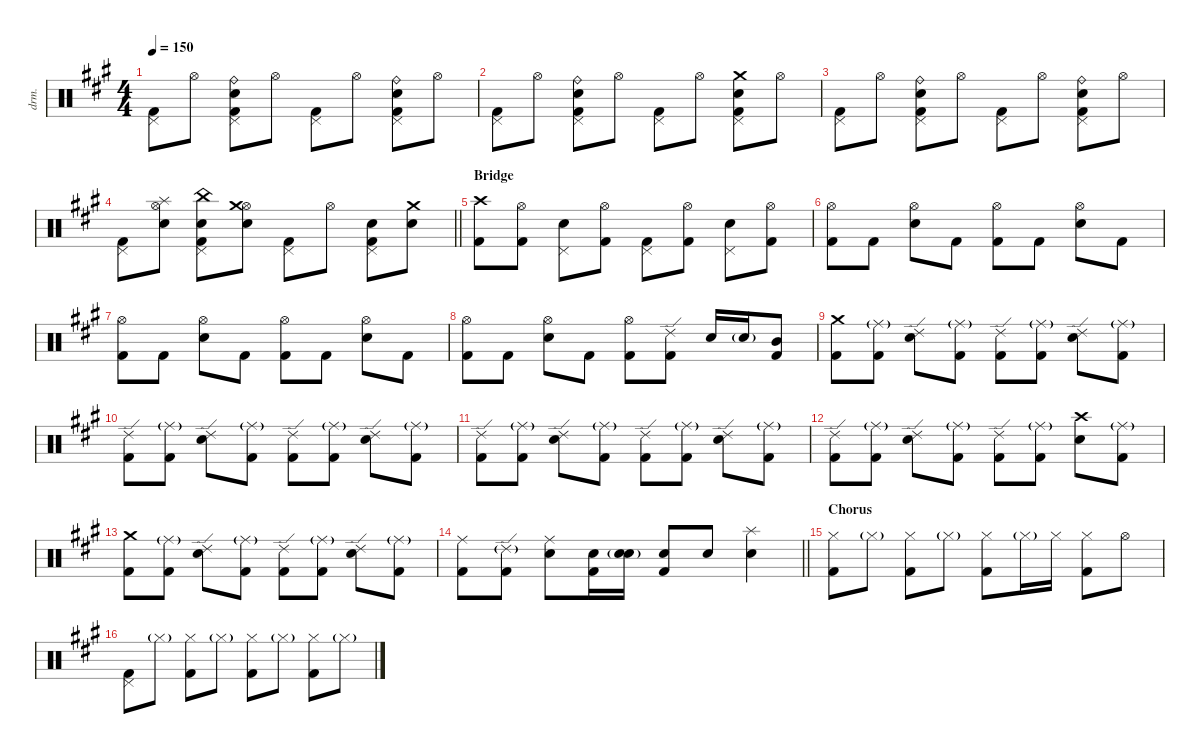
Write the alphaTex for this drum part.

\defaultSystemsLayout 4
\hideDynamics
\bracketExtendMode nobrackets
\otherSystemsTrackNameOrientation horizontal
\track ("Drums" "drm.") {instrument percussion}
\staff {score}
\articulation defaults
\ts (4 4)
\tempo 150
\clef neutral
\ks a
("Kick (hit) 2"{acc forcenatural} "Pedal Hi-Hat (hit)"{acc forcenatural}).8{dy fff} "Hi-Hat (open)"{acc forcenatural}.8{dy mp} ("Kick (hit) 2"{acc forcenatural} "Snare (hit) 2"{acc forcenatural} "Pedal Hi-Hat (hit)"{acc forcenatural} "Ride (bell)"{acc forcenatural}).8{dy fff} "Hi-Hat (open)"{acc forcenatural}.8{dy mp} ("Kick (hit) 2"{acc forcenatural} "Pedal Hi-Hat (hit)"{acc forcenatural}).8{dy fff} "Hi-Hat (open)"{acc forcenatural}.8{dy mp} ("Kick (hit) 2"{acc forcenatural} "Snare (hit) 2"{acc forcenatural} "Pedal Hi-Hat (hit)"{acc forcenatural} "Ride (bell)"{acc forcenatural}).8{dy fff} "Hi-Hat (open)"{acc forcenatural}.8{dy mp} |
("Kick (hit) 2"{acc forcenatural} "Pedal Hi-Hat (hit)"{acc forcenatural}).8{dy fff} "Hi-Hat (open)"{acc forcenatural}.8{dy mp} ("Kick (hit) 2"{acc forcenatural} "Snare (hit) 2"{acc forcenatural} "Pedal Hi-Hat (hit)"{acc forcenatural} "Ride (bell)"{acc forcenatural}).8{dy fff} "Hi-Hat (open)"{acc forcenatural}.8{dy mp} ("Kick (hit) 2"{acc forcenatural} "Pedal Hi-Hat (hit)"{acc forcenatural}).8{dy fff} "Hi-Hat (open)"{acc forcenatural}.8{dy mp} ("Kick (hit) 2"{acc forcenatural} "Snare (hit) 2"{acc forcenatural} "Pedal Hi-Hat (hit)"{acc forcenatural} "Crash medium (hit)"{acc forcenatural}).8{dy fff} "Hi-Hat (open)"{acc forcenatural}.8{dy mp} |
("Kick (hit) 2"{acc forcenatural} "Pedal Hi-Hat (hit)"{acc forcenatural}).8{dy fff} "Hi-Hat (open)"{acc forcenatural}.8{dy mp} ("Kick (hit) 2"{acc forcenatural} "Snare (hit) 2"{acc forcenatural} "Pedal Hi-Hat (hit)"{acc forcenatural} "Ride (bell)"{acc forcenatural}).8{dy fff} "Hi-Hat (open)"{acc forcenatural}.8{dy mp} ("Kick (hit) 2"{acc forcenatural} "Pedal Hi-Hat (hit)"{acc forcenatural}).8{dy fff} "Hi-Hat (open)"{acc forcenatural}.8{dy mp} ("Kick (hit) 2"{acc forcenatural} "Snare (hit) 2"{acc forcenatural} "Pedal Hi-Hat (hit)"{acc forcenatural} "Ride (bell)"{acc forcenatural}).8{dy fff} "Hi-Hat (open)"{acc forcenatural}.8{dy mp} |
\barLineRight lightlight
("Kick (hit) 2"{acc forcenatural} "Pedal Hi-Hat (hit)"{acc forcenatural}).8{dy fff} ("Snare (hit) 2"{acc forcenatural} "Hi-Hat (open)"{acc forcenatural} "Splash (hit)"{acc forcenatural}).8 ("Kick (hit) 2"{acc forcenatural} "Snare (hit) 2"{acc forcenatural} "Pedal Hi-Hat (hit)"{acc forcenatural} "China (hit)"{acc forcenatural}).8 ("Snare (hit) 2"{acc forcenatural} "Hi-Hat (open)"{acc forcenatural} "Crash medium (hit)"{acc forcenatural}).8 ("Kick (hit) 2"{acc forcenatural} "Pedal Hi-Hat (hit)"{acc forcenatural}).8 "Hi-Hat (open)"{acc forcenatural}.8{dy mp} ("Kick (hit) 2"{acc forcenatural} "Snare (hit) 2"{acc forcenatural} "Pedal Hi-Hat (hit)"{acc forcenatural}).8{dy fff} ("Snare (hit) 2"{acc forcenatural} "Crash medium (hit)"{acc forcenatural}).8 |
\section ("" "Bridge")
("Kick (hit) 2"{acc forcenatural} "Crash high (hit)"{acc forcenatural}).8 ("Kick (hit) 2"{acc forcenatural} "Hi-Hat (open)"{acc forcenatural}).8 ("Snare (hit) 2"{acc forcenatural} "Pedal Hi-Hat (hit)"{acc forcenatural}).8{dy ff} ("Kick (hit) 2"{acc forcenatural} "Hi-Hat (open)"{acc forcenatural}).8{dy mp} ("Kick (hit) 2"{acc forcenatural} "Pedal Hi-Hat (hit)"{acc forcenatural}).8{dy fff} ("Kick (hit) 2"{acc forcenatural} "Hi-Hat (open)"{acc forcenatural}).8 ("Snare (hit) 2"{acc forcenatural} "Pedal Hi-Hat (hit)"{acc forcenatural}).8{dy ff} ("Kick (hit) 2"{acc forcenatural} "Hi-Hat (open)"{acc forcenatural}).8{dy mp} |
("Kick (hit) 2"{acc forcenatural} "Hi-Hat (open)"{acc forcenatural}).8{dy fff} "Kick (hit) 2"{acc forcenatural}.8 ("Snare (hit) 2"{acc forcenatural} "Hi-Hat (open)"{acc forcenatural}).8{dy ff} "Kick (hit) 2"{acc forcenatural}.8{dy mp} ("Kick (hit) 2"{acc forcenatural} "Hi-Hat (open)"{acc forcenatural}).8{dy fff} "Kick (hit) 2"{acc forcenatural}.8 ("Snare (hit) 2"{acc forcenatural} "Hi-Hat (open)"{acc forcenatural}).8{dy ff} "Kick (hit) 2"{acc forcenatural}.8{dy mp} |
("Kick (hit) 2"{acc forcenatural} "Hi-Hat (open)"{acc forcenatural}).8{dy fff} "Kick (hit) 2"{acc forcenatural}.8 ("Snare (hit) 2"{acc forcenatural} "Hi-Hat (open)"{acc forcenatural}).8{dy ff} "Kick (hit) 2"{acc forcenatural}.8{dy mp} ("Kick (hit) 2"{acc forcenatural} "Hi-Hat (open)"{acc forcenatural}).8{dy fff} "Kick (hit) 2"{acc forcenatural}.8 ("Snare (hit) 2"{acc forcenatural} "Hi-Hat (open)"{acc forcenatural}).8{dy ff} "Kick (hit) 2"{acc forcenatural}.8{dy mp} |
("Kick (hit) 2"{acc forcenatural} "Hi-Hat (open)"{acc forcenatural}).8{dy fff} "Kick (hit) 2"{acc forcenatural}.8 ("Snare (hit) 2"{acc forcenatural} "Hi-Hat (open)"{acc forcenatural}).8{dy ff} "Kick (hit) 2"{acc forcenatural}.8{dy mp} ("Kick (hit) 2"{acc forcenatural} "Hi-Hat (open)"{acc forcenatural}).8{dy fff} ("Kick (hit) 2"{acc forcenatural} "Ride (edge) 2"{acc forcenatural}).8 "Snare (hit) 2"{acc forcenatural}.16{dy ff} "Snare (hit) 2"{g acc forcenatural}.16{dy f} ("Kick (hit) 2"{acc forcenatural} "Mid Tom (hit)"{acc forcenatural}).8{dy mp} |
("Kick (hit) 2"{acc forcenatural} "Crash medium (hit)"{acc forcenatural}).8{dy fff} ("Kick (hit) 2"{acc forcenatural} "Ride (middle)"{g acc forcenatural}).8 ("Snare (hit) 2"{acc forcenatural} "Ride (edge) 2"{acc forcenatural}).8{dy ff} ("Kick (hit) 2"{acc forcenatural} "Ride (middle)"{g acc forcenatural}).8{dy mp} ("Kick (hit) 2"{acc forcenatural} "Ride (edge) 2"{acc forcenatural}).8{dy fff} ("Kick (hit) 2"{acc forcenatural} "Ride (middle)"{g acc forcenatural}).8 ("Snare (hit) 2"{acc forcenatural} "Ride (edge) 2"{acc forcenatural}).8{dy ff} ("Kick (hit) 2"{acc forcenatural} "Ride (middle)"{g acc forcenatural}).8{dy mp} |
("Kick (hit) 2"{acc forcenatural} "Ride (edge) 2"{acc forcenatural}).8{dy fff} ("Kick (hit) 2"{acc forcenatural} "Ride (middle)"{g acc forcenatural}).8 ("Snare (hit) 2"{acc forcenatural} "Ride (edge) 2"{acc forcenatural}).8{dy ff} ("Kick (hit) 2"{acc forcenatural} "Ride (middle)"{g acc forcenatural}).8{dy mp} ("Kick (hit) 2"{acc forcenatural} "Ride (edge) 2"{acc forcenatural}).8{dy fff} ("Kick (hit) 2"{acc forcenatural} "Ride (middle)"{g acc forcenatural}).8 ("Snare (hit) 2"{acc forcenatural} "Ride (edge) 2"{acc forcenatural}).8{dy ff} ("Kick (hit) 2"{acc forcenatural} "Ride (middle)"{g acc forcenatural}).8{dy mp} |
("Kick (hit) 2"{acc forcenatural} "Ride (edge) 2"{acc forcenatural}).8{dy fff} ("Kick (hit) 2"{acc forcenatural} "Ride (middle)"{g acc forcenatural}).8 ("Snare (hit) 2"{acc forcenatural} "Ride (edge) 2"{acc forcenatural}).8{dy ff} ("Kick (hit) 2"{acc forcenatural} "Ride (middle)"{g acc forcenatural}).8{dy mp} ("Kick (hit) 2"{acc forcenatural} "Ride (edge) 2"{acc forcenatural}).8{dy fff} ("Kick (hit) 2"{acc forcenatural} "Ride (middle)"{g acc forcenatural}).8 ("Snare (hit) 2"{acc forcenatural} "Ride (edge) 2"{acc forcenatural}).8{dy ff} ("Kick (hit) 2"{acc forcenatural} "Ride (middle)"{g acc forcenatural}).8{dy mp} |
("Kick (hit) 2"{acc forcenatural} "Ride (edge) 2"{acc forcenatural}).8{dy fff} ("Kick (hit) 2"{acc forcenatural} "Ride (middle)"{g acc forcenatural}).8 ("Snare (hit) 2"{acc forcenatural} "Ride (edge) 2"{acc forcenatural}).8{dy ff} ("Kick (hit) 2"{acc forcenatural} "Ride (middle)"{g acc forcenatural}).8{dy mp} ("Kick (hit) 2"{acc forcenatural} "Ride (edge) 2"{acc forcenatural}).8{dy fff} ("Kick (hit) 2"{acc forcenatural} "Ride (middle)"{g acc forcenatural}).8 ("Snare (hit) 2"{acc forcenatural} "Crash high (hit)"{acc forcenatural}).8 ("Kick (hit) 2"{acc forcenatural} "Ride (middle)"{g acc forcenatural}).8{dy mp} |
("Kick (hit) 2"{acc forcenatural} "Crash medium (hit)"{acc forcenatural}).8{dy fff} ("Kick (hit) 2"{acc forcenatural} "Ride (middle)"{g acc forcenatural}).8 ("Snare (hit) 2"{acc forcenatural} "Ride (edge) 2"{acc forcenatural}).8{dy ff} ("Kick (hit) 2"{acc forcenatural} "Ride (middle)"{g acc forcenatural}).8{dy mp} ("Kick (hit) 2"{acc forcenatural} "Ride (edge) 2"{acc forcenatural}).8{dy fff} ("Kick (hit) 2"{acc forcenatural} "Ride (middle)"{g acc forcenatural}).8 ("Snare (hit) 2"{acc forcenatural} "Ride (edge) 2"{acc forcenatural}).8{dy ff} ("Kick (hit) 2"{acc forcenatural} "Ride (middle)"{g acc forcenatural}).8{dy mp} |
\barLineRight lightlight
("Kick (hit) 2"{acc forcenatural} "Ride (middle)"{acc forcenatural}).8{dy fff} ("Kick (hit) 2"{acc forcenatural} "Ride (edge) 2"{g acc forcenatural}).8 ("Snare (hit) 2"{acc forcenatural} "Ride (middle)"{acc forcenatural}).8{dy ff} ("Kick (hit) 2"{acc forcenatural} "Snare (hit) 2"{acc forcenatural}).16{dy mp} ("Snare (hit) 2"{acc forcenatural} "Snare (hit) 2"{g acc forcenatural}).16{dy mf} ("Kick (hit) 2"{acc forcenatural} "Snare (hit) 2"{acc forcenatural}).8{dy fff} "Snare (hit) 2"{acc forcenatural}.8{dy ff} ("Snare (hit) 2"{acc forcenatural} "Splash (hit)"{acc forcenatural}).4{dy fff} |
\section ("" "Chorus")
("Kick (hit) 2"{acc forcenatural} "Hi-Hat (closed)"{acc forcenatural}).8 "Hi-Hat (closed)"{g acc forcenatural}.8{dy p} ("Kick (hit) 2"{acc forcenatural} "Hi-Hat (closed)"{acc forcenatural}).8{dy fff} "Hi-Hat (closed)"{g acc forcenatural}.8{dy p} ("Kick (hit) 2"{acc forcenatural} "Hi-Hat (closed)"{acc forcenatural}).8{dy fff} "Hi-Hat (closed)"{g acc forcenatural}.16{dy p} "Hi-Hat (closed)"{acc forcenatural}.16{dy mf} ("Kick (hit) 2"{acc forcenatural} "Hi-Hat (closed)"{acc forcenatural}).8{dy fff} "Hi-Hat (open)"{acc forcenatural}.8{dy mp} |
("Kick (hit) 2"{acc forcenatural} "Pedal Hi-Hat (hit)"{acc forcenatural}).8{dy fff} "Hi-Hat (closed)"{g acc forcenatural}.8{dy p} ("Kick (hit) 2"{acc forcenatural} "Hi-Hat (closed)"{acc forcenatural}).8{dy fff} "Hi-Hat (closed)"{g acc forcenatural}.8{dy p} ("Kick (hit) 2"{acc forcenatural} "Hi-Hat (closed)"{acc forcenatural}).8{dy fff} "Hi-Hat (closed)"{g acc forcenatural}.8{dy p} ("Kick (hit) 2"{acc forcenatural} "Hi-Hat (closed)"{acc forcenatural}).8{dy fff} "Hi-Hat (closed)"{g acc forcenatural}.8{dy p}
